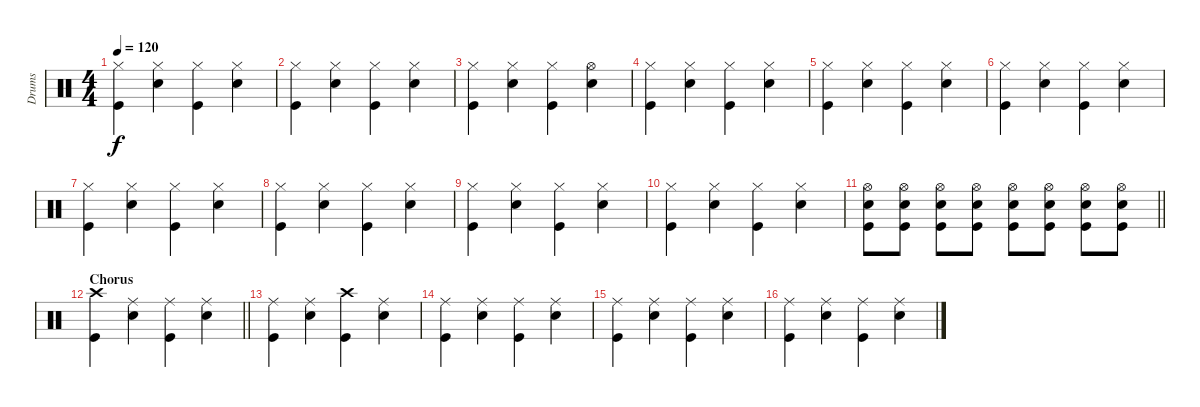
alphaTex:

\track ("Drums" "Drums") {instrument percussion}
\staff {score}
\articulation defaults
\ts (4 4)
\tempo 120
\clef neutral
\ks c
("Hi-Hat (closed)" "Kick (hit)").4{dy f} ("Hi-Hat (closed)" "Electric Snare (hit)").4 ("Hi-Hat (closed)" "Kick (hit)").4 ("Hi-Hat (closed)" "Electric Snare (hit)").4 |
("Hi-Hat (closed)" "Kick (hit)").4 ("Hi-Hat (closed)" "Electric Snare (hit)").4 ("Hi-Hat (closed)" "Kick (hit)").4 ("Hi-Hat (closed)" "Electric Snare (hit)").4 |
("Hi-Hat (closed)" "Kick (hit)").4 ("Hi-Hat (closed)" "Electric Snare (hit)").4 ("Hi-Hat (closed)" "Kick (hit)").4 ("Hi-Hat (open)" "Electric Snare (hit)").4 |
("Hi-Hat (closed)" "Kick (hit)").4 ("Hi-Hat (closed)" "Electric Snare (hit)").4 ("Hi-Hat (closed)" "Kick (hit)").4 ("Hi-Hat (closed)" "Electric Snare (hit)").4 |
("Hi-Hat (closed)" "Kick (hit)").4 ("Hi-Hat (closed)" "Electric Snare (hit)").4 ("Hi-Hat (closed)" "Kick (hit)").4 ("Hi-Hat (closed)" "Electric Snare (hit)").4 |
("Hi-Hat (closed)" "Kick (hit)").4 ("Hi-Hat (closed)" "Electric Snare (hit)").4 ("Hi-Hat (closed)" "Kick (hit)").4 ("Hi-Hat (closed)" "Electric Snare (hit)").4 |
("Hi-Hat (closed)" "Kick (hit)").4 ("Hi-Hat (closed)" "Electric Snare (hit)").4 ("Hi-Hat (closed)" "Kick (hit)").4 ("Hi-Hat (closed)" "Electric Snare (hit)").4 |
("Hi-Hat (closed)" "Kick (hit)").4 ("Hi-Hat (closed)" "Electric Snare (hit)").4 ("Hi-Hat (closed)" "Kick (hit)").4 ("Hi-Hat (closed)" "Electric Snare (hit)").4 |
("Hi-Hat (closed)" "Kick (hit)").4 ("Hi-Hat (closed)" "Electric Snare (hit)").4 ("Hi-Hat (closed)" "Kick (hit)").4 ("Hi-Hat (closed)" "Electric Snare (hit)").4 |
("Hi-Hat (closed)" "Kick (hit)").4 ("Hi-Hat (closed)" "Electric Snare (hit)").4 ("Hi-Hat (closed)" "Kick (hit)").4 ("Hi-Hat (closed)" "Electric Snare (hit)").4 |
\barLineRight lightlight
("Hi-Hat (open)" "Electric Snare (hit)" "Kick (hit)").8 ("Hi-Hat (open)" "Electric Snare (hit)" "Kick (hit)").8 ("Hi-Hat (open)" "Electric Snare (hit)" "Kick (hit)").8 ("Hi-Hat (open)" "Electric Snare (hit)" "Kick (hit)").8 ("Hi-Hat (open)" "Electric Snare (hit)" "Kick (hit)").8 ("Hi-Hat (open)" "Electric Snare (hit)" "Kick (hit)").8 ("Hi-Hat (open)" "Electric Snare (hit)" "Kick (hit)").8 ("Hi-Hat (open)" "Electric Snare (hit)" "Kick (hit)").8 |
\section ("" "Chorus")
\barLineRight lightlight
("Crash high (hit)" "Kick (hit)").4 ("Ride (middle)" "Electric Snare (hit)").4 ("Ride (middle)" "Kick (hit)").4 ("Ride (middle)" "Electric Snare (hit)").4 |
("Ride (middle)" "Kick (hit)").4 ("Ride (middle)" "Electric Snare (hit)").4 ("Crash high (hit)" "Kick (hit)").4 ("Ride (middle)" "Electric Snare (hit)").4 |
("Ride (middle)" "Kick (hit)").4 ("Ride (middle)" "Electric Snare (hit)").4 ("Ride (middle)" "Kick (hit)").4 ("Ride (middle)" "Electric Snare (hit)").4 |
("Ride (middle)" "Kick (hit)").4 ("Ride (middle)" "Electric Snare (hit)").4 ("Ride (middle)" "Kick (hit)").4 ("Ride (middle)" "Electric Snare (hit)").4 |
("Ride (middle)" "Kick (hit)").4 ("Ride (middle)" "Electric Snare (hit)").4 ("Ride (middle)" "Kick (hit)").4 ("Ride (middle)" "Electric Snare (hit)").4
